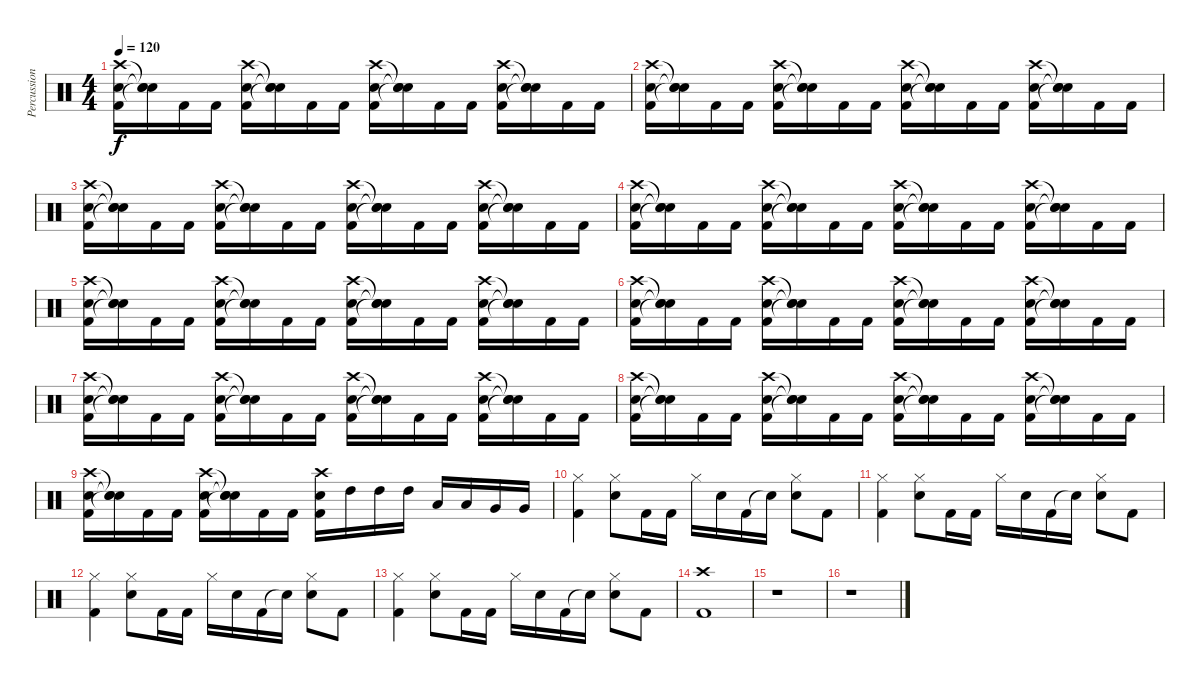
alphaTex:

\track ("Percussions" "Percussion") {instrument percussion}
\staff {score}
\articulation defaults
\ts (4 4)
\tempo 120
\clef neutral
\ks c
("Kick (hit) 2" "Electric Snare (hit)" "Crash high (hit)").16{dy f} ("Snare (hit)"{t} "Snare (hit)"{t} "Snare (hit)"{t}).16 "Kick (hit) 2".16 "Kick (hit) 2".16 ("Kick (hit) 2" "Electric Snare (hit)" "Crash high (hit)").16 ("Snare (hit)"{t} "Snare (hit)"{t} "Snare (hit)"{t}).16 "Kick (hit) 2".16 "Kick (hit) 2".16 ("Kick (hit) 2" "Electric Snare (hit)" "Crash high (hit)").16 ("Snare (hit)"{t} "Snare (hit)"{t} "Snare (hit)"{t}).16 "Kick (hit) 2".16 "Kick (hit) 2".16 ("Kick (hit) 2" "Electric Snare (hit)" "Crash high (hit)").16 ("Snare (hit)"{t} "Snare (hit)"{t} "Snare (hit)"{t}).16 "Kick (hit) 2".16 "Kick (hit) 2".16 |
("Kick (hit) 2" "Electric Snare (hit)" "Crash high (hit)").16 ("Snare (hit)"{t} "Snare (hit)"{t} "Snare (hit)"{t}).16 "Kick (hit) 2".16 "Kick (hit) 2".16 ("Kick (hit) 2" "Electric Snare (hit)" "Crash high (hit)").16 ("Snare (hit)"{t} "Snare (hit)"{t} "Snare (hit)"{t}).16 "Kick (hit) 2".16 "Kick (hit) 2".16 ("Kick (hit) 2" "Electric Snare (hit)" "Crash high (hit)").16 ("Snare (hit)"{t} "Snare (hit)"{t} "Snare (hit)"{t}).16 "Kick (hit) 2".16 "Kick (hit) 2".16 ("Kick (hit) 2" "Electric Snare (hit)" "Crash high (hit)").16 ("Snare (hit)"{t} "Snare (hit)"{t} "Snare (hit)"{t}).16 "Kick (hit) 2".16 "Kick (hit) 2".16 |
("Kick (hit) 2" "Electric Snare (hit)" "Crash high (hit)").16 ("Snare (hit)"{t} "Snare (hit)"{t} "Snare (hit)"{t}).16 "Kick (hit) 2".16 "Kick (hit) 2".16 ("Kick (hit) 2" "Electric Snare (hit)" "Crash high (hit)").16 ("Snare (hit)"{t} "Snare (hit)"{t} "Snare (hit)"{t}).16 "Kick (hit) 2".16 "Kick (hit) 2".16 ("Kick (hit) 2" "Electric Snare (hit)" "Crash high (hit)").16 ("Snare (hit)"{t} "Snare (hit)"{t} "Snare (hit)"{t}).16 "Kick (hit) 2".16 "Kick (hit) 2".16 ("Kick (hit) 2" "Electric Snare (hit)" "Crash high (hit)").16 ("Snare (hit)"{t} "Snare (hit)"{t} "Snare (hit)"{t}).16 "Kick (hit) 2".16 "Kick (hit) 2".16 |
("Kick (hit) 2" "Electric Snare (hit)" "Crash high (hit)").16 ("Snare (hit)"{t} "Snare (hit)"{t} "Snare (hit)"{t}).16 "Kick (hit) 2".16 "Kick (hit) 2".16 ("Kick (hit) 2" "Electric Snare (hit)" "Crash high (hit)").16 ("Snare (hit)"{t} "Snare (hit)"{t} "Snare (hit)"{t}).16 "Kick (hit) 2".16 "Kick (hit) 2".16 ("Kick (hit) 2" "Electric Snare (hit)" "Crash high (hit)").16 ("Snare (hit)"{t} "Snare (hit)"{t} "Snare (hit)"{t}).16 "Kick (hit) 2".16 "Kick (hit) 2".16 ("Kick (hit) 2" "Electric Snare (hit)" "Crash high (hit)").16 ("Snare (hit)"{t} "Snare (hit)"{t} "Snare (hit)"{t}).16 "Kick (hit) 2".16 "Kick (hit) 2".16 |
("Kick (hit) 2" "Electric Snare (hit)" "Crash high (hit)").16 ("Snare (hit)"{t} "Snare (hit)"{t} "Snare (hit)"{t}).16 "Kick (hit) 2".16 "Kick (hit) 2".16 ("Kick (hit) 2" "Electric Snare (hit)" "Crash high (hit)").16 ("Snare (hit)"{t} "Snare (hit)"{t} "Snare (hit)"{t}).16 "Kick (hit) 2".16 "Kick (hit) 2".16 ("Kick (hit) 2" "Electric Snare (hit)" "Crash high (hit)").16 ("Snare (hit)"{t} "Snare (hit)"{t} "Snare (hit)"{t}).16 "Kick (hit) 2".16 "Kick (hit) 2".16 ("Kick (hit) 2" "Electric Snare (hit)" "Crash high (hit)").16 ("Snare (hit)"{t} "Snare (hit)"{t} "Snare (hit)"{t}).16 "Kick (hit) 2".16 "Kick (hit) 2".16 |
("Kick (hit) 2" "Electric Snare (hit)" "Crash high (hit)").16 ("Snare (hit)"{t} "Snare (hit)"{t} "Snare (hit)"{t}).16 "Kick (hit) 2".16 "Kick (hit) 2".16 ("Kick (hit) 2" "Electric Snare (hit)" "Crash high (hit)").16 ("Snare (hit)"{t} "Snare (hit)"{t} "Snare (hit)"{t}).16 "Kick (hit) 2".16 "Kick (hit) 2".16 ("Kick (hit) 2" "Electric Snare (hit)" "Crash high (hit)").16 ("Snare (hit)"{t} "Snare (hit)"{t} "Snare (hit)"{t}).16 "Kick (hit) 2".16 "Kick (hit) 2".16 ("Kick (hit) 2" "Electric Snare (hit)" "Crash high (hit)").16 ("Snare (hit)"{t} "Snare (hit)"{t} "Snare (hit)"{t}).16 "Kick (hit) 2".16 "Kick (hit) 2".16 |
("Kick (hit) 2" "Electric Snare (hit)" "Crash high (hit)").16 ("Snare (hit)"{t} "Snare (hit)"{t} "Snare (hit)"{t}).16 "Kick (hit) 2".16 "Kick (hit) 2".16 ("Kick (hit) 2" "Electric Snare (hit)" "Crash high (hit)").16 ("Snare (hit)"{t} "Snare (hit)"{t} "Snare (hit)"{t}).16 "Kick (hit) 2".16 "Kick (hit) 2".16 ("Kick (hit) 2" "Electric Snare (hit)" "Crash high (hit)").16 ("Snare (hit)"{t} "Snare (hit)"{t} "Snare (hit)"{t}).16 "Kick (hit) 2".16 "Kick (hit) 2".16 ("Kick (hit) 2" "Electric Snare (hit)" "Crash high (hit)").16 ("Snare (hit)"{t} "Snare (hit)"{t} "Snare (hit)"{t}).16 "Kick (hit) 2".16 "Kick (hit) 2".16 |
("Kick (hit) 2" "Electric Snare (hit)" "Crash high (hit)").16 ("Snare (hit)"{t} "Snare (hit)"{t} "Snare (hit)"{t}).16 "Kick (hit) 2".16 "Kick (hit) 2".16 ("Kick (hit) 2" "Electric Snare (hit)" "Crash high (hit)").16 ("Snare (hit)"{t} "Snare (hit)"{t} "Snare (hit)"{t}).16 "Kick (hit) 2".16 "Kick (hit) 2".16 ("Kick (hit) 2" "Electric Snare (hit)" "Crash high (hit)").16 ("Snare (hit)"{t} "Snare (hit)"{t} "Snare (hit)"{t}).16 "Kick (hit) 2".16 "Kick (hit) 2".16 ("Kick (hit) 2" "Electric Snare (hit)" "Crash high (hit)").16 ("Snare (hit)"{t} "Snare (hit)"{t} "Snare (hit)"{t}).16 "Kick (hit) 2".16 "Kick (hit) 2".16 |
("Kick (hit) 2" "Electric Snare (hit)" "Crash high (hit)").16 ("Snare (hit)"{t} "Snare (hit)"{t} "Snare (hit)"{t}).16 "Kick (hit) 2".16 "Kick (hit) 2".16 ("Kick (hit) 2" "Electric Snare (hit)" "Crash high (hit)").16 ("Snare (hit)"{t} "Snare (hit)"{t} "Snare (hit)"{t}).16 "Kick (hit) 2".16 "Kick (hit) 2".16 ("Kick (hit) 2" "Electric Snare (hit)" "Crash high (hit)").16 "High Tom (hit)".16 "High Tom (hit)".16 "High Tom (hit)".16 "Low Tom (hit)".16 "Low Tom (hit)".16 "Very Low Tom (hit)".16 "Very Low Tom (hit)".16 |
("Kick (hit) 2" "Hi-Hat (closed)").4 ("Electric Snare (hit)" "Hi-Hat (closed)").8 "Kick (hit) 2".16 "Kick (hit) 2".16 "Hi-Hat (closed)".16 "Electric Snare (hit)".16 "Kick (hit) 2".16 "Snare (hit)"{t}.16 ("Electric Snare (hit)" "Hi-Hat (closed)").8 "Kick (hit) 2".8 |
("Kick (hit) 2" "Hi-Hat (closed)").4 ("Electric Snare (hit)" "Hi-Hat (closed)").8 "Kick (hit) 2".16 "Kick (hit) 2".16 "Hi-Hat (closed)".16 "Electric Snare (hit)".16 "Kick (hit) 2".16 "Snare (hit)"{t}.16 ("Electric Snare (hit)" "Hi-Hat (closed)").8 "Kick (hit) 2".8 |
("Kick (hit) 2" "Hi-Hat (closed)").4 ("Electric Snare (hit)" "Hi-Hat (closed)").8 "Kick (hit) 2".16 "Kick (hit) 2".16 "Hi-Hat (closed)".16 "Electric Snare (hit)".16 "Kick (hit) 2".16 "Snare (hit)"{t}.16 ("Electric Snare (hit)" "Hi-Hat (closed)").8 "Kick (hit) 2".8 |
("Kick (hit) 2" "Hi-Hat (closed)").4 ("Electric Snare (hit)" "Hi-Hat (closed)").8 "Kick (hit) 2".16 "Kick (hit) 2".16 "Hi-Hat (closed)".16 "Electric Snare (hit)".16 "Kick (hit) 2".16 "Snare (hit)"{t}.16 ("Electric Snare (hit)" "Hi-Hat (closed)").8 "Kick (hit) 2".8 |
("Kick (hit) 2" "Crash high (hit)").1 |
r.1 |
r.1
